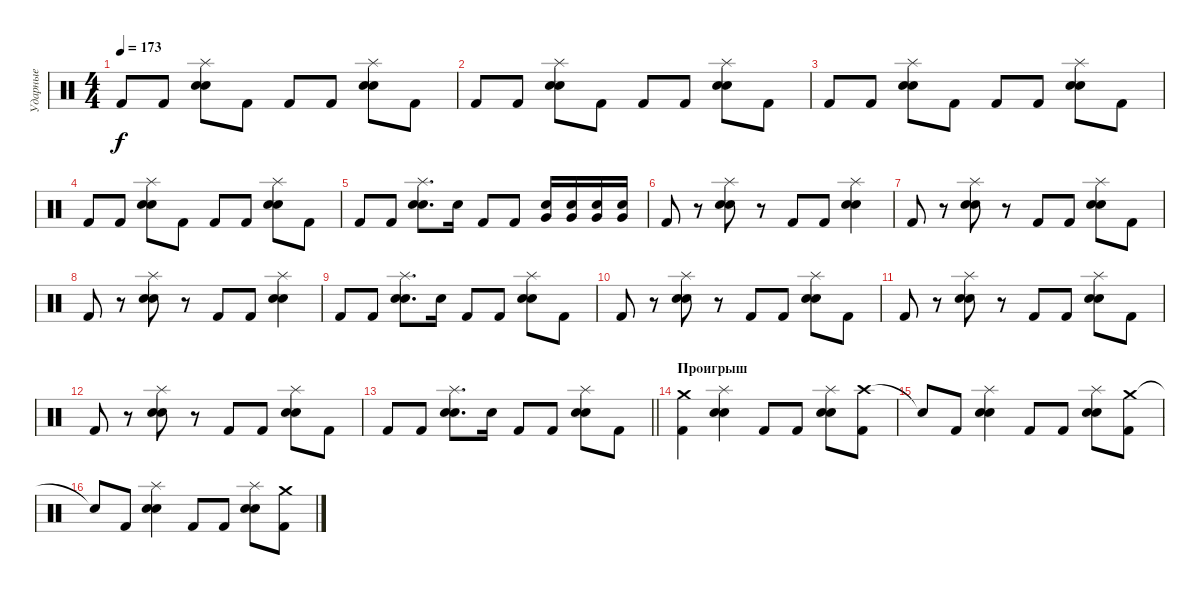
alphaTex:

\track ("Ударные" "Ударные") {instrument percussion}
\staff {score}
\articulation defaults
\ts (4 4)
\tempo 173
\clef neutral
\ks c "Kick (hit) 2".8{dy f} "Kick (hit) 2".8
("Splash (hit)" "Electric Snare (hit)" "Snare (hit) 2").8 "Kick (hit) 2".8 "Kick (hit) 2".8 "Kick (hit) 2".8 ("Splash (hit)" "Electric Snare (hit)" "Snare (hit) 2").8 "Kick (hit) 2".8 |
"Kick (hit) 2".8 "Kick (hit) 2".8 ("Splash (hit)" "Electric Snare (hit)" "Snare (hit) 2").8 "Kick (hit) 2".8 "Kick (hit) 2".8 "Kick (hit) 2".8 ("Splash (hit)" "Electric Snare (hit)" "Snare (hit) 2").8 "Kick (hit) 2".8 |
"Kick (hit) 2".8 "Kick (hit) 2".8 ("Splash (hit)" "Electric Snare (hit)" "Snare (hit) 2").8 "Kick (hit) 2".8 "Kick (hit) 2".8 "Kick (hit) 2".8 ("Splash (hit)" "Electric Snare (hit)" "Snare (hit) 2").8 "Kick (hit) 2".8 |
"Kick (hit) 2".8 "Kick (hit) 2".8 ("Splash (hit)" "Electric Snare (hit)" "Snare (hit) 2").8 "Kick (hit) 2".8 "Kick (hit) 2".8 "Kick (hit) 2".8 ("Splash (hit)" "Electric Snare (hit)" "Snare (hit) 2").8 "Kick (hit) 2".8 |
"Kick (hit) 2".8 "Kick (hit) 2".8 ("Splash (hit)" "Electric Snare (hit)" "Snare (hit) 2").8{d} "Electric Snare (hit)".16 "Kick (hit) 2".8 "Kick (hit) 2".8 ("Very Low Tom (hit)" "Snare (hit) 2").16 ("Very Low Tom (hit)" "Snare (hit) 2").16 ("Very Low Tom (hit)" "Snare (hit) 2").16 ("Very Low Tom (hit)" "Snare (hit) 2").16 |
"Kick (hit) 2".8 r.8 ("Splash (hit)" "Electric Snare (hit)" "Snare (hit) 2").8 r.8 "Kick (hit) 2".8 "Kick (hit) 2".8 ("Splash (hit)" "Electric Snare (hit)" "Snare (hit) 2").4 |
"Kick (hit) 2".8 r.8 ("Splash (hit)" "Electric Snare (hit)" "Snare (hit) 2").8 r.8 "Kick (hit) 2".8 "Kick (hit) 2".8 ("Splash (hit)" "Electric Snare (hit)" "Snare (hit) 2").8 "Kick (hit) 2".8 |
"Kick (hit) 2".8 r.8 ("Splash (hit)" "Electric Snare (hit)" "Snare (hit) 2").8 r.8 "Kick (hit) 2".8 "Kick (hit) 2".8 ("Splash (hit)" "Electric Snare (hit)" "Snare (hit) 2").4 |
"Kick (hit) 2".8 "Kick (hit) 2".8 ("Splash (hit)" "Electric Snare (hit)" "Snare (hit) 2").8{d} "Electric Snare (hit)".16 "Kick (hit) 2".8 "Kick (hit) 2".8 ("Splash (hit)" "Electric Snare (hit)" "Snare (hit) 2").8 "Kick (hit) 2".8 |
"Kick (hit) 2".8 r.8 ("Splash (hit)" "Electric Snare (hit)" "Snare (hit) 2").8 r.8 "Kick (hit) 2".8 "Kick (hit) 2".8 ("Splash (hit)" "Electric Snare (hit)" "Snare (hit) 2").8 "Kick (hit) 2".8 |
"Kick (hit) 2".8 r.8 ("Splash (hit)" "Electric Snare (hit)" "Snare (hit) 2").8 r.8 "Kick (hit) 2".8 "Kick (hit) 2".8 ("Splash (hit)" "Electric Snare (hit)" "Snare (hit) 2").8 "Kick (hit) 2".8 |
"Kick (hit) 2".8 r.8 ("Splash (hit)" "Electric Snare (hit)" "Snare (hit) 2").8 r.8 "Kick (hit) 2".8 "Kick (hit) 2".8 ("Splash (hit)" "Electric Snare (hit)" "Snare (hit) 2").8 "Kick (hit) 2".8 |
\barLineRight lightlight "Kick (hit) 2".8 "Kick (hit) 2".8
("Splash (hit)" "Electric Snare (hit)" "Snare (hit) 2").8{d} "Electric Snare (hit)".16 "Kick (hit) 2".8 "Kick (hit) 2".8 ("Splash (hit)" "Electric Snare (hit)" "Snare (hit) 2").8 "Kick (hit) 2".8 |
\section ("" "Проигрыш")
("Crash medium (hit)" "Kick (hit) 2").4 ("Splash (hit)" "Electric Snare (hit)" "Snare (hit) 2").4 "Kick (hit) 2".8 "Kick (hit) 2".8 ("Splash (hit)" "Electric Snare (hit)" "Snare (hit) 2").8 ("Crash high (hit)" "Kick (hit) 2").8 |
"Snare (hit)"{t}.8 "Kick (hit) 2".8 ("Splash (hit)" "Electric Snare (hit)" "Snare (hit) 2").4 "Kick (hit) 2".8 "Kick (hit) 2".8 ("Splash (hit)" "Electric Snare (hit)" "Snare (hit) 2").8 ("Crash medium (hit)" "Kick (hit) 2").8 |
"Snare (hit)"{t}.8 "Kick (hit) 2".8 ("Splash (hit)" "Electric Snare (hit)" "Snare (hit) 2").4 "Kick (hit) 2".8 "Kick (hit) 2".8 ("Splash (hit)" "Electric Snare (hit)" "Snare (hit) 2").8 ("Crash medium (hit)" "Kick (hit) 2").8
